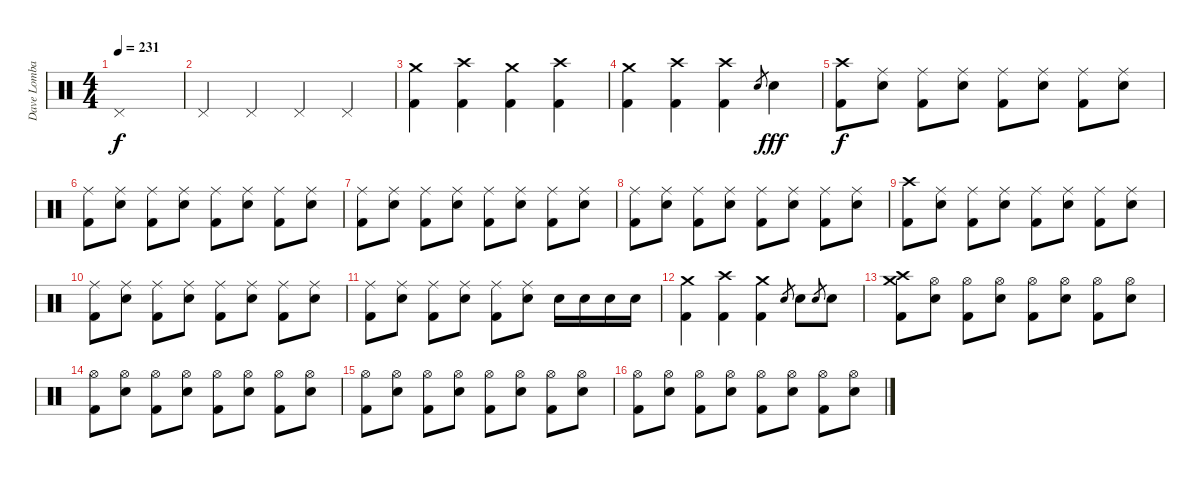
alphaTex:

\track ("Dave Lombardo" "Dave Lomba") {instrument percussion}
\staff {score}
\articulation defaults
\ts (4 4)
\tempo 231
\clef neutral
\ks c "Pedal Hi-Hat (hit)".1{dy f}
|
"Pedal Hi-Hat (hit)".4 "Pedal Hi-Hat (hit)".4 "Pedal Hi-Hat (hit)".4 "Pedal Hi-Hat (hit)".4 |
("Kick (hit) 2" "Crash medium (hit)").4 ("Kick (hit) 2" "Crash high (hit)").4 ("Kick (hit) 2" "Crash medium (hit)").4 ("Kick (hit) 2" "Crash high (hit)").4 |
("Kick (hit) 2" "Crash medium (hit)").4 ("Kick (hit) 2" "Crash high (hit)").4 ("Kick (hit) 2" "Crash high (hit)").4 "Electric Snare (hit)".8{gr} "Electric Snare (hit)".4{dy fff} |
("Kick (hit) 2" "Crash high (hit)").8{dy f} ("Ride (middle)" "Electric Snare (hit)").8 ("Ride (middle)" "Kick (hit) 2").8 ("Ride (middle)" "Electric Snare (hit)").8 ("Ride (middle)" "Kick (hit) 2").8 ("Ride (middle)" "Electric Snare (hit)").8 ("Ride (middle)" "Kick (hit) 2").8 ("Ride (middle)" "Electric Snare (hit)").8 |
("Ride (middle)" "Kick (hit) 2").8 ("Ride (middle)" "Electric Snare (hit)").8 ("Ride (middle)" "Kick (hit) 2").8 ("Ride (middle)" "Electric Snare (hit)").8 ("Ride (middle)" "Kick (hit) 2").8 ("Ride (middle)" "Electric Snare (hit)").8 ("Ride (middle)" "Kick (hit) 2").8 ("Ride (middle)" "Electric Snare (hit)").8 |
("Ride (middle)" "Kick (hit) 2").8 ("Ride (middle)" "Electric Snare (hit)").8 ("Ride (middle)" "Kick (hit) 2").8 ("Ride (middle)" "Electric Snare (hit)").8 ("Ride (middle)" "Kick (hit) 2").8 ("Ride (middle)" "Electric Snare (hit)").8 ("Ride (middle)" "Kick (hit) 2").8 ("Ride (middle)" "Electric Snare (hit)").8 |
("Ride (middle)" "Kick (hit) 2").8 ("Ride (middle)" "Electric Snare (hit)").8 ("Ride (middle)" "Kick (hit) 2").8 ("Ride (middle)" "Electric Snare (hit)").8 ("Ride (middle)" "Kick (hit) 2").8 ("Ride (middle)" "Electric Snare (hit)").8 ("Ride (middle)" "Kick (hit) 2").8 ("Ride (middle)" "Electric Snare (hit)").8 |
("Kick (hit) 2" "Crash high (hit)").8 ("Ride (middle)" "Electric Snare (hit)").8 ("Ride (middle)" "Kick (hit) 2").8 ("Ride (middle)" "Electric Snare (hit)").8 ("Ride (middle)" "Kick (hit) 2").8 ("Ride (middle)" "Electric Snare (hit)").8 ("Ride (middle)" "Kick (hit) 2").8 ("Ride (middle)" "Electric Snare (hit)").8 |
("Ride (middle)" "Kick (hit) 2").8 ("Ride (middle)" "Electric Snare (hit)").8 ("Ride (middle)" "Kick (hit) 2").8 ("Ride (middle)" "Electric Snare (hit)").8 ("Ride (middle)" "Kick (hit) 2").8 ("Ride (middle)" "Electric Snare (hit)").8 ("Ride (middle)" "Kick (hit) 2").8 ("Ride (middle)" "Electric Snare (hit)").8 |
("Ride (middle)" "Kick (hit) 2").8 ("Ride (middle)" "Electric Snare (hit)").8 ("Ride (middle)" "Kick (hit) 2").8 ("Ride (middle)" "Electric Snare (hit)").8 ("Ride (middle)" "Kick (hit) 2").8 ("Ride (middle)" "Electric Snare (hit)").8 "Electric Snare (hit)".16 "Electric Snare (hit)".16 "Electric Snare (hit)".16 "Electric Snare (hit)".16 |
("Kick (hit) 2" "Crash medium (hit)").4 ("Kick (hit) 2" "Crash high (hit)").4 ("Kick (hit) 2" "Crash medium (hit)").4 "Electric Snare (hit)".8{gr} "Electric Snare (hit)".8 "Electric Snare (hit)".8{gr} "Electric Snare (hit)".8 |
("Crash high (hit)" "Kick (hit) 2" "Crash medium (hit)").8 ("Electric Snare (hit)" "Hi-Hat (open)").8 ("Kick (hit) 2" "Hi-Hat (open)").8 ("Electric Snare (hit)" "Hi-Hat (open)").8 ("Kick (hit) 2" "Hi-Hat (open)").8 ("Electric Snare (hit)" "Hi-Hat (open)").8 ("Kick (hit) 2" "Hi-Hat (open)").8 ("Electric Snare (hit)" "Hi-Hat (open)").8 |
("Hi-Hat (open)" "Kick (hit) 2").8 ("Electric Snare (hit)" "Hi-Hat (open)").8 ("Kick (hit) 2" "Hi-Hat (open)").8 ("Electric Snare (hit)" "Hi-Hat (open)").8 ("Kick (hit) 2" "Hi-Hat (open)").8 ("Electric Snare (hit)" "Hi-Hat (open)").8 ("Kick (hit) 2" "Hi-Hat (open)").8 ("Electric Snare (hit)" "Hi-Hat (open)").8 |
("Hi-Hat (open)" "Kick (hit) 2").8 ("Electric Snare (hit)" "Hi-Hat (open)").8 ("Kick (hit) 2" "Hi-Hat (open)").8 ("Electric Snare (hit)" "Hi-Hat (open)").8 ("Kick (hit) 2" "Hi-Hat (open)").8 ("Electric Snare (hit)" "Hi-Hat (open)").8 ("Kick (hit) 2" "Hi-Hat (open)").8 ("Electric Snare (hit)" "Hi-Hat (open)").8 |
("Hi-Hat (open)" "Kick (hit) 2").8 ("Electric Snare (hit)" "Hi-Hat (open)").8 ("Kick (hit) 2" "Hi-Hat (open)").8 ("Electric Snare (hit)" "Hi-Hat (open)").8 ("Kick (hit) 2" "Hi-Hat (open)").8 ("Electric Snare (hit)" "Hi-Hat (open)").8 ("Kick (hit) 2" "Hi-Hat (open)").8 ("Electric Snare (hit)" "Hi-Hat (open)").8
